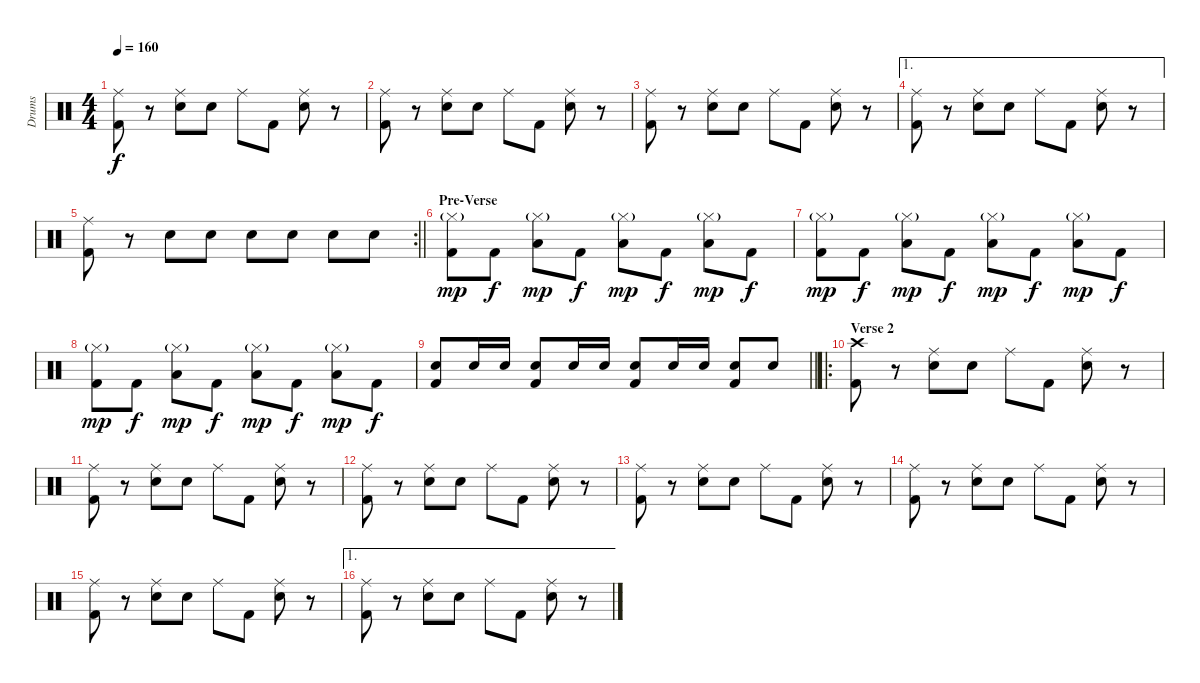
\track ("Drums" "Drums") {instrument percussion}
\staff {score}
\articulation defaults
\ts (4 4)
\tempo 160
\clef neutral
\ks c
("Ride (middle)" "Kick (hit) 2").8{dy f} r.8 ("Ride (middle)" "Snare (hit) 2").8 "Snare (hit) 2".8 "Ride (middle)".8 "Kick (hit) 2".8 ("Ride (middle)" "Snare (hit) 2").8 r.8 |
("Ride (middle)" "Kick (hit) 2").8 r.8 ("Ride (middle)" "Snare (hit) 2").8 "Snare (hit) 2".8 "Ride (middle)".8 "Kick (hit) 2".8 ("Ride (middle)" "Snare (hit) 2").8 r.8 |
("Ride (middle)" "Kick (hit) 2").8 r.8 ("Ride (middle)" "Snare (hit) 2").8 "Snare (hit) 2".8 "Ride (middle)".8 "Kick (hit) 2".8 ("Ride (middle)" "Snare (hit) 2").8 r.8 |
\ae 1
("Ride (middle)" "Kick (hit) 2").8 r.8 ("Ride (middle)" "Snare (hit) 2").8 "Snare (hit) 2".8 "Ride (middle)".8 "Kick (hit) 2".8 ("Ride (middle)" "Snare (hit) 2").8 r.8 |
\rc 2
\barLineRight lightlight
("Ride (middle)" "Kick (hit) 2").8 r.8 "Snare (hit) 2".8 "Snare (hit) 2".8 "Snare (hit) 2".8 "Snare (hit) 2".8 "Snare (hit) 2".8 "Snare (hit) 2".8 |
\section ("" "Pre-Verse")
("Hi-Hat (closed)"{g} "Kick (hit) 2").8{dy mp} "Kick (hit) 2".8{dy f} ("Hi-Hat (closed)"{g} "Low Floor Tom (hit)").8{dy mp} "Kick (hit) 2".8{dy f} ("Hi-Hat (closed)"{g} "Low Tom (hit)").8{dy mp} "Kick (hit) 2".8{dy f} ("Hi-Hat (closed)"{g} "Low Floor Tom (hit)").8{dy mp} "Kick (hit) 2".8{dy f} |
("Hi-Hat (closed)"{g} "Kick (hit) 2").8{dy mp} "Kick (hit) 2".8{dy f} ("Hi-Hat (closed)"{g} "Low Floor Tom (hit)").8{dy mp} "Kick (hit) 2".8{dy f} ("Hi-Hat (closed)"{g} "Low Tom (hit)").8{dy mp} "Kick (hit) 2".8{dy f} ("Hi-Hat (closed)"{g} "Low Floor Tom (hit)").8{dy mp} "Kick (hit) 2".8{dy f} |
("Hi-Hat (closed)"{g} "Kick (hit) 2").8{dy mp} "Kick (hit) 2".8{dy f} ("Hi-Hat (closed)"{g} "Low Floor Tom (hit)").8{dy mp} "Kick (hit) 2".8{dy f} ("Hi-Hat (closed)"{g} "Low Tom (hit)").8{dy mp} "Kick (hit) 2".8{dy f} ("Hi-Hat (closed)"{g} "Low Floor Tom (hit)").8{dy mp} "Kick (hit) 2".8{dy f} |
\barLineRight lightlight
("Snare (hit) 2" "Kick (hit) 2").8 "Snare (hit) 2".16 "Snare (hit) 2".16 ("Snare (hit) 2" "Kick (hit) 2").8 "Snare (hit) 2".16 "Snare (hit) 2".16 ("Snare (hit) 2" "Kick (hit) 2").8 "Snare (hit) 2".16 "Snare (hit) 2".16 ("Snare (hit) 2" "Kick (hit) 2").8 "Snare (hit) 2".8 |
\ro
\section ("" "Verse 2")
("Crash high (hit)" "Kick (hit) 2").8 r.8 ("Ride (middle)" "Snare (hit) 2").8 "Snare (hit) 2".8 "Ride (middle)".8 "Kick (hit) 2".8 ("Ride (middle)" "Snare (hit) 2").8 r.8 |
("Ride (middle)" "Kick (hit) 2").8 r.8 ("Ride (middle)" "Snare (hit) 2").8 "Snare (hit) 2".8 "Ride (middle)".8 "Kick (hit) 2".8 ("Ride (middle)" "Snare (hit) 2").8 r.8 |
("Ride (middle)" "Kick (hit) 2").8 r.8 ("Ride (middle)" "Snare (hit) 2").8 "Snare (hit) 2".8 "Ride (middle)".8 "Kick (hit) 2".8 ("Ride (middle)" "Snare (hit) 2").8 r.8 |
("Ride (middle)" "Kick (hit) 2").8 r.8 ("Ride (middle)" "Snare (hit) 2").8 "Snare (hit) 2".8 "Ride (middle)".8 "Kick (hit) 2".8 ("Ride (middle)" "Snare (hit) 2").8 r.8 |
("Ride (middle)" "Kick (hit) 2").8 r.8 ("Ride (middle)" "Snare (hit) 2").8 "Snare (hit) 2".8 "Ride (middle)".8 "Kick (hit) 2".8 ("Ride (middle)" "Snare (hit) 2").8 r.8 |
("Ride (middle)" "Kick (hit) 2").8 r.8 ("Ride (middle)" "Snare (hit) 2").8 "Snare (hit) 2".8 "Ride (middle)".8 "Kick (hit) 2".8 ("Ride (middle)" "Snare (hit) 2").8 r.8 |
\ae 1
("Ride (middle)" "Kick (hit) 2").8 r.8 ("Ride (middle)" "Snare (hit) 2").8 "Snare (hit) 2".8 "Ride (middle)".8 "Kick (hit) 2".8 ("Ride (middle)" "Snare (hit) 2").8 r.8
